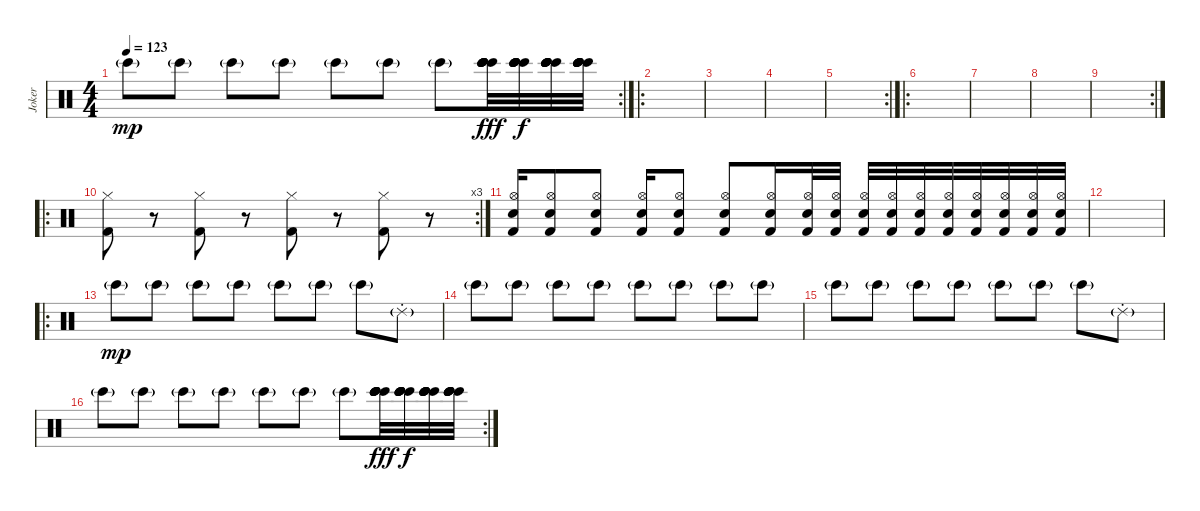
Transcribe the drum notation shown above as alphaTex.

\track ("Joker" "Joker") {instrument percussion}
\staff {score}
\articulation defaults
\rc 2
\ts (4 4)
\tempo 123
\clef neutral
\ks c "Bongo High (hit)"{g}.8{dy mp} "Bongo High (hit)"{g}.8 "Bongo High (hit)"{g}.8 "Bongo High (hit)"{g}.8 "Bongo High (hit)"{g}.8 "Bongo High (hit)"{g}.8 "Bongo High (hit)"{g}.8
("Bongo High (hit)" "Bongo High (hit)" "Bongo High (hit)" "Bongo High (hit)" "Bongo High (hit)" "Bongo High (hit)").32{dy fff} ("Bongo High (hit)" "Bongo High (hit)" "Bongo High (hit)" "Bongo High (hit)" "Bongo High (hit)" "Bongo High (hit)").32{dy f} ("Bongo High (hit)" "Bongo High (hit)" "Bongo High (hit)" "Bongo High (hit)" "Bongo High (hit)" "Bongo High (hit)").32 ("Bongo High (hit)" "Bongo High (hit)" "Bongo High (hit)" "Bongo High (hit)" "Bongo High (hit)" "Bongo High (hit)").32 |
\ro
|
|
|
\rc 2
|
\ro
|
|
|
\rc 2
|
\ro
\rc 3
("Hi-Hat (closed)" "Kick (hit) 2").8 r.8 ("Hi-Hat (closed)" "Kick (hit) 2").8 r.8 ("Hi-Hat (closed)" "Kick (hit) 2").8 r.8 ("Hi-Hat (closed)" "Kick (hit) 2").8 r.8 |
("Hi-Hat (open)" "Kick (hit) 2" "Electric Snare (hit)").16 ("Hi-Hat (open)" "Kick (hit) 2" "Electric Snare (hit)").8 ("Hi-Hat (open)" "Kick (hit) 2" "Electric Snare (hit)").8 ("Hi-Hat (open)" "Kick (hit) 2" "Electric Snare (hit)").16 ("Hi-Hat (open)" "Kick (hit) 2" "Electric Snare (hit)").8 ("Hi-Hat (open)" "Kick (hit) 2" "Electric Snare (hit)").8 ("Hi-Hat (open)" "Kick (hit) 2" "Electric Snare (hit)").16 ("Hi-Hat (open)" "Kick (hit) 2" "Electric Snare (hit)").32 ("Kick (hit) 2" "Hi-Hat (open)" "Electric Snare (hit)").32 ("Kick (hit) 2" "Hi-Hat (open)" "Electric Snare (hit)").32 ("Kick (hit) 2" "Hi-Hat (open)" "Electric Snare (hit)").32 ("Kick (hit) 2" "Hi-Hat (open)" "Electric Snare (hit)").32 ("Kick (hit) 2" "Hi-Hat (open)" "Electric Snare (hit)").32 ("Kick (hit) 2" "Hi-Hat (open)" "Electric Snare (hit)").32 ("Kick (hit) 2" "Hi-Hat (open)" "Electric Snare (hit)").32 ("Kick (hit) 2" "Hi-Hat (open)" "Electric Snare (hit)").32 ("Kick (hit) 2" "Hi-Hat (open)" "Electric Snare (hit)").32 |
|
\ro "Bongo High (hit)"{g}.8{dy mp} "Bongo High (hit)"{g}.8 "Bongo High (hit)"{g}.8 "Bongo High (hit)"{g}.8 "Bongo High (hit)"{g}.8 "Bongo High (hit)"{g}.8 "Bongo High (hit)"{g}.8 "Ride (choke) 2"{g}.8
|
"Bongo High (hit)"{g}.8 "Bongo High (hit)"{g}.8 "Bongo High (hit)"{g}.8 "Bongo High (hit)"{g}.8 "Bongo High (hit)"{g}.8 "Bongo High (hit)"{g}.8 "Bongo High (hit)"{g}.8 "Bongo High (hit)"{g}.8 |
"Bongo High (hit)"{g}.8 "Bongo High (hit)"{g}.8 "Bongo High (hit)"{g}.8 "Bongo High (hit)"{g}.8 "Bongo High (hit)"{g}.8 "Bongo High (hit)"{g}.8 "Bongo High (hit)"{g}.8 "Ride (choke) 2"{g}.8 |
\rc 2 "Bongo High (hit)"{g}.8 "Bongo High (hit)"{g}.8 "Bongo High (hit)"{g}.8 "Bongo High (hit)"{g}.8 "Bongo High (hit)"{g}.8 "Bongo High (hit)"{g}.8 "Bongo High (hit)"{g}.8
("Bongo High (hit)" "Bongo High (hit)" "Bongo High (hit)" "Bongo High (hit)" "Bongo High (hit)" "Bongo High (hit)").32{dy fff} ("Bongo High (hit)" "Bongo High (hit)" "Bongo High (hit)" "Bongo High (hit)" "Bongo High (hit)" "Bongo High (hit)").32{dy f} ("Bongo High (hit)" "Bongo High (hit)" "Bongo High (hit)" "Bongo High (hit)" "Bongo High (hit)" "Bongo High (hit)").32 ("Bongo High (hit)" "Bongo High (hit)" "Bongo High (hit)" "Bongo High (hit)" "Bongo High (hit)" "Bongo High (hit)").32
